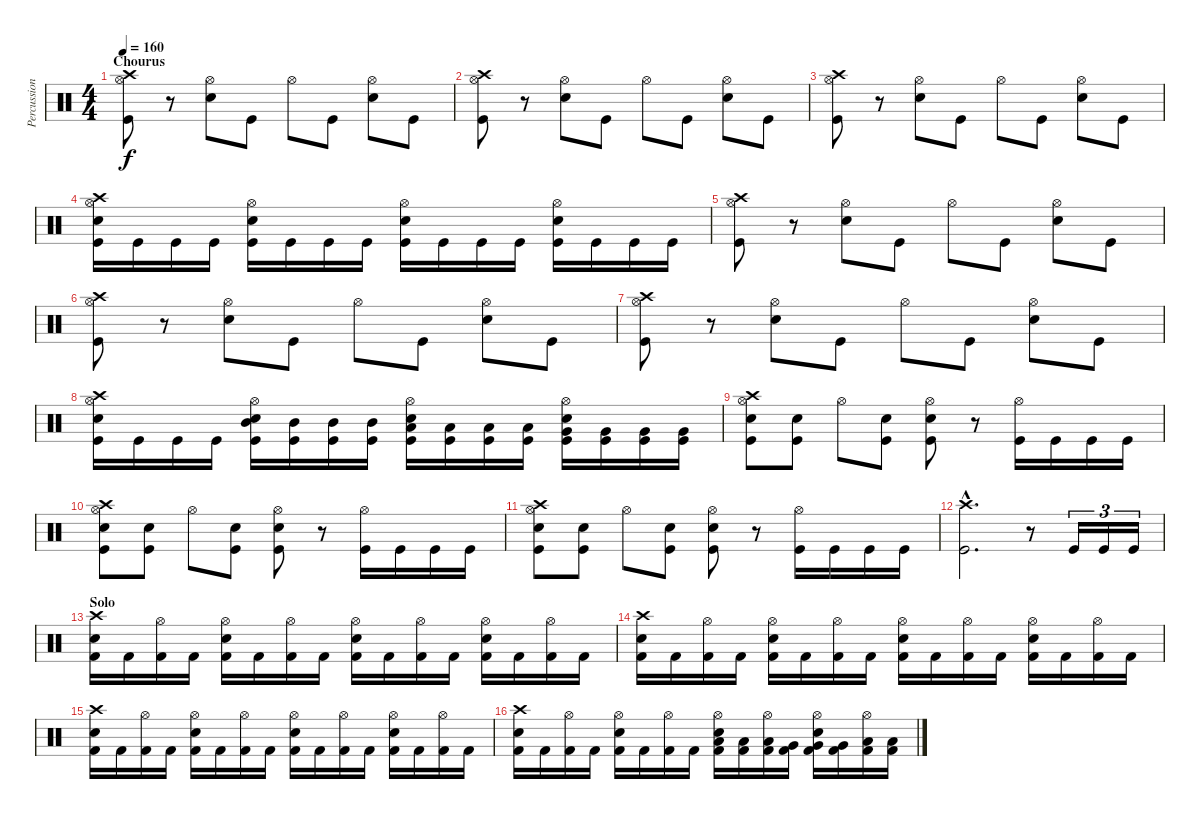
\track ("Percussion" "Percussion") {instrument percussion}
\staff {score}
\articulation defaults
\ts (4 4)
\section ("" "Chourus")
\tempo 160
\clef neutral
\ks c
("Crash high (hit)" "Hi-Hat (open)" "Kick (hit)").8{dy f} r.8 ("Electric Snare (hit)" "Hi-Hat (open)").8 "Kick (hit)".8 "Hi-Hat (open)".8 "Kick (hit)".8 ("Hi-Hat (open)" "Electric Snare (hit)").8 "Kick (hit)".8 |
("Crash high (hit)" "Hi-Hat (open)" "Kick (hit)").8 r.8 ("Electric Snare (hit)" "Hi-Hat (open)").8 "Kick (hit)".8 "Hi-Hat (open)".8 "Kick (hit)".8 ("Hi-Hat (open)" "Electric Snare (hit)").8 "Kick (hit)".8 |
("Crash high (hit)" "Hi-Hat (open)" "Kick (hit)").8 r.8 ("Electric Snare (hit)" "Hi-Hat (open)").8 "Kick (hit)".8 "Hi-Hat (open)".8 "Kick (hit)".8 ("Hi-Hat (open)" "Electric Snare (hit)").8 "Kick (hit)".8 |
("Crash high (hit)" "Hi-Hat (open)" "Electric Snare (hit)" "Kick (hit)").16 "Kick (hit)".16 "Kick (hit)".16 "Kick (hit)".16 ("Hi-Hat (open)" "Electric Snare (hit)" "Kick (hit)").16 "Kick (hit)".16 "Kick (hit)".16 "Kick (hit)".16 ("Hi-Hat (open)" "Electric Snare (hit)" "Kick (hit)").16 "Kick (hit)".16 "Kick (hit)".16 "Kick (hit)".16 ("Hi-Hat (open)" "Electric Snare (hit)" "Kick (hit)").16 "Kick (hit)".16 "Kick (hit)".16 "Kick (hit)".16 |
("Crash high (hit)" "Hi-Hat (open)" "Kick (hit)").8 r.8 ("Electric Snare (hit)" "Hi-Hat (open)").8 "Kick (hit)".8 "Hi-Hat (open)".8 "Kick (hit)".8 ("Hi-Hat (open)" "Electric Snare (hit)").8 "Kick (hit)".8 |
("Crash high (hit)" "Hi-Hat (open)" "Kick (hit)").8 r.8 ("Electric Snare (hit)" "Hi-Hat (open)").8 "Kick (hit)".8 "Hi-Hat (open)".8 "Kick (hit)".8 ("Hi-Hat (open)" "Electric Snare (hit)").8 "Kick (hit)".8 |
("Crash high (hit)" "Hi-Hat (open)" "Kick (hit)").8 r.8 ("Electric Snare (hit)" "Hi-Hat (open)").8 "Kick (hit)".8 "Hi-Hat (open)".8 "Kick (hit)".8 ("Hi-Hat (open)" "Electric Snare (hit)").8 "Kick (hit)".8 |
("Crash high (hit)" "Hi-Hat (open)" "Electric Snare (hit)" "Kick (hit)").16 "Kick (hit)".16 "Kick (hit)".16 "Kick (hit)".16 ("Mid Tom (hit)" "Hi-Hat (open)" "Electric Snare (hit)" "Kick (hit)").16 ("Mid Tom (hit)" "Kick (hit)").16 ("Mid Tom (hit)" "Kick (hit)").16 ("Mid Tom (hit)" "Kick (hit)").16 ("Low Tom (hit)" "Hi-Hat (open)" "Electric Snare (hit)" "Kick (hit)").16 ("Low Tom (hit)" "Kick (hit)").16 ("Low Tom (hit)" "Kick (hit)").16 ("Low Tom (hit)" "Kick (hit)").16 ("Very Low Tom (hit)" "Hi-Hat (open)" "Electric Snare (hit)" "Kick (hit)").16 ("Very Low Tom (hit)" "Kick (hit)").16 ("Very Low Tom (hit)" "Kick (hit)").16 ("Very Low Tom (hit)" "Kick (hit)").16 |
("Crash high (hit)" "Hi-Hat (open)" "Electric Snare (hit)" "Kick (hit)").8 ("Electric Snare (hit)" "Kick (hit)").8 "Hi-Hat (open)".8 ("Electric Snare (hit)" "Kick (hit)").8 ("Hi-Hat (open)" "Electric Snare (hit)" "Kick (hit)").8 r.8 ("Hi-Hat (open)" "Kick (hit)").16 "Kick (hit)".16 "Kick (hit)".16 "Kick (hit)".16 |
("Crash high (hit)" "Hi-Hat (open)" "Electric Snare (hit)" "Kick (hit)").8 ("Electric Snare (hit)" "Kick (hit)").8 "Hi-Hat (open)".8 ("Electric Snare (hit)" "Kick (hit)").8 ("Hi-Hat (open)" "Electric Snare (hit)" "Kick (hit)").8 r.8 ("Hi-Hat (open)" "Kick (hit)").16 "Kick (hit)".16 "Kick (hit)".16 "Kick (hit)".16 |
("Crash high (hit)" "Hi-Hat (open)" "Electric Snare (hit)" "Kick (hit)").8 ("Electric Snare (hit)" "Kick (hit)").8 "Hi-Hat (open)".8 ("Electric Snare (hit)" "Kick (hit)").8 ("Hi-Hat (open)" "Electric Snare (hit)" "Kick (hit)").8 r.8 ("Hi-Hat (open)" "Kick (hit)").16 "Kick (hit)".16 "Kick (hit)".16 "Kick (hit)".16 |
("Crash high (hit)"{hac} "Kick (hit)"{hac}).2{d} r.8 "Kick (hit)".16{tu (3 2)} "Kick (hit)".16{tu (3 2)} "Kick (hit)".16{tu (3 2)} |
\section ("" "Solo")
("Crash high (hit)" "Electric Snare (hit)" "Kick (hit) 2").16 "Kick (hit) 2".16 ("Hi-Hat (open)" "Kick (hit) 2").16 "Kick (hit) 2".16 ("Hi-Hat (open)" "Electric Snare (hit)" "Kick (hit) 2").16 "Kick (hit) 2".16 ("Hi-Hat (open)" "Kick (hit) 2").16 "Kick (hit) 2".16 ("Hi-Hat (open)" "Electric Snare (hit)" "Kick (hit) 2").16 "Kick (hit) 2".16 ("Hi-Hat (open)" "Kick (hit) 2").16 "Kick (hit) 2".16 ("Hi-Hat (open)" "Electric Snare (hit)" "Kick (hit) 2").16 "Kick (hit) 2".16 ("Hi-Hat (open)" "Kick (hit) 2").16 "Kick (hit) 2".16 |
("Crash high (hit)" "Electric Snare (hit)" "Kick (hit) 2").16 "Kick (hit) 2".16 ("Hi-Hat (open)" "Kick (hit) 2").16 "Kick (hit) 2".16 ("Hi-Hat (open)" "Electric Snare (hit)" "Kick (hit) 2").16 "Kick (hit) 2".16 ("Hi-Hat (open)" "Kick (hit) 2").16 "Kick (hit) 2".16 ("Hi-Hat (open)" "Electric Snare (hit)" "Kick (hit) 2").16 "Kick (hit) 2".16 ("Hi-Hat (open)" "Kick (hit) 2").16 "Kick (hit) 2".16 ("Hi-Hat (open)" "Electric Snare (hit)" "Kick (hit) 2").16 "Kick (hit) 2".16 ("Hi-Hat (open)" "Kick (hit) 2").16 "Kick (hit) 2".16 |
("Crash high (hit)" "Electric Snare (hit)" "Kick (hit) 2").16 "Kick (hit) 2".16 ("Hi-Hat (open)" "Kick (hit) 2").16 "Kick (hit) 2".16 ("Hi-Hat (open)" "Electric Snare (hit)" "Kick (hit) 2").16 "Kick (hit) 2".16 ("Hi-Hat (open)" "Kick (hit) 2").16 "Kick (hit) 2".16 ("Hi-Hat (open)" "Electric Snare (hit)" "Kick (hit) 2").16 "Kick (hit) 2".16 ("Hi-Hat (open)" "Kick (hit) 2").16 "Kick (hit) 2".16 ("Hi-Hat (open)" "Electric Snare (hit)" "Kick (hit) 2").16 "Kick (hit) 2".16 ("Hi-Hat (open)" "Kick (hit) 2").16 "Kick (hit) 2".16 |
("Crash high (hit)" "Electric Snare (hit)" "Kick (hit) 2").16 "Kick (hit) 2".16 ("Hi-Hat (open)" "Kick (hit) 2").16 "Kick (hit) 2".16 ("Hi-Hat (open)" "Electric Snare (hit)" "Kick (hit) 2").16 "Kick (hit) 2".16 ("Hi-Hat (open)" "Kick (hit) 2").16 "Kick (hit) 2".16 ("Hi-Hat (open)" "Low Tom (hit)" "Electric Snare (hit)" "Kick (hit) 2").16 ("Low Tom (hit)" "Kick (hit) 2").16 ("Hi-Hat (open)" "Low Tom (hit)" "Kick (hit) 2").16 ("Very Low Tom (hit)" "Kick (hit) 2").16 ("Hi-Hat (open)" "Very Low Tom (hit)" "Electric Snare (hit)" "Kick (hit) 2").16 ("Very Low Tom (hit)" "Kick (hit) 2").16 ("Hi-Hat (open)" "Low Floor Tom (hit)" "Kick (hit) 2").16 ("Low Floor Tom (hit)" "Kick (hit) 2").16
